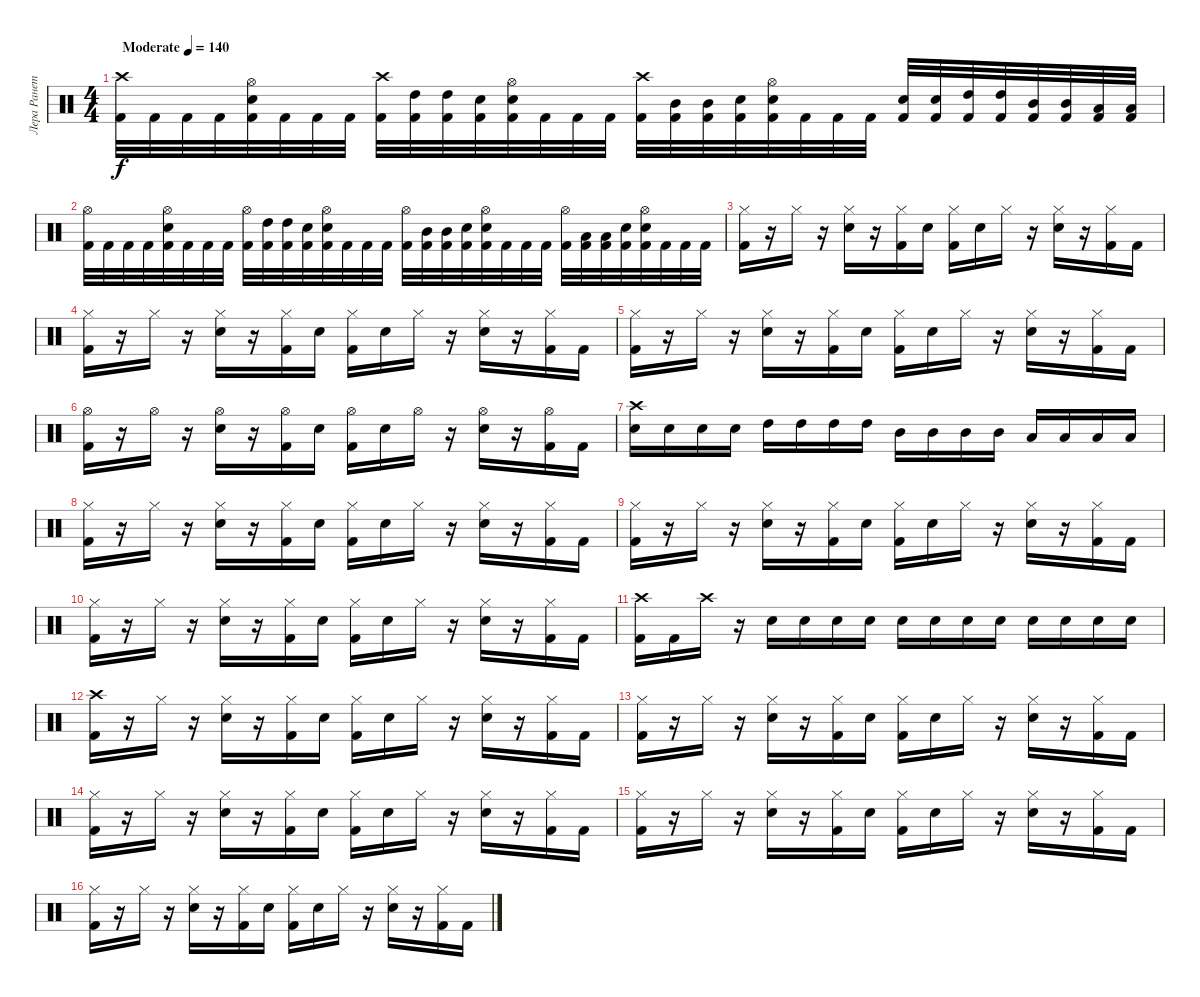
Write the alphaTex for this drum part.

\track ("Лера Ранетка" "Лера Ранет") {instrument percussion}
\staff {score}
\articulation defaults
\ts (4 4)
\tempo (140 "Moderate")
\clef neutral
\ks c
("Crash high (hit)" "Kick (hit) 2").32{dy f} "Kick (hit) 2".32 "Kick (hit) 2".32 "Kick (hit) 2".32 ("Hi-Hat (open)" "Snare (hit) 2" "Kick (hit) 2").32 "Kick (hit) 2".32 "Kick (hit) 2".32 "Kick (hit) 2".32 ("Crash high (hit)" "Kick (hit) 2").32 ("High Tom (hit)" "Kick (hit) 2").32 ("High Tom (hit)" "Kick (hit) 2").32 ("Snare (hit) 2" "Kick (hit) 2").32 ("Hi-Hat (open)" "Snare (hit) 2" "Kick (hit) 2").32 "Kick (hit) 2".32 "Kick (hit) 2".32 "Kick (hit) 2".32 ("Crash high (hit)" "Kick (hit) 2").32 ("Mid Tom (hit)" "Kick (hit) 2").32 ("Mid Tom (hit)" "Kick (hit) 2").32 ("Snare (hit) 2" "Kick (hit) 2").32 ("Hi-Hat (open)" "Snare (hit) 2" "Kick (hit) 2").32 "Kick (hit) 2".32 "Kick (hit) 2".32 "Kick (hit) 2".32 ("Snare (hit) 2" "Kick (hit) 2").32 ("Snare (hit) 2" "Kick (hit) 2").32 ("High Tom (hit)" "Kick (hit) 2").32 ("High Tom (hit)" "Kick (hit) 2").32 ("Mid Tom (hit)" "Kick (hit) 2").32 ("Mid Tom (hit)" "Kick (hit) 2").32 ("Low Tom (hit)" "Kick (hit) 2").32 ("Low Tom (hit)" "Kick (hit) 2").32 |
("Hi-Hat (open)" "Kick (hit) 2").32 "Kick (hit) 2".32 "Kick (hit) 2".32 "Kick (hit) 2".32 ("Hi-Hat (open)" "Snare (hit) 2" "Kick (hit) 2").32 "Kick (hit) 2".32 "Kick (hit) 2".32 "Kick (hit) 2".32 ("Hi-Hat (open)" "Kick (hit) 2").32 ("High Tom (hit)" "Kick (hit) 2").32 ("High Tom (hit)" "Kick (hit) 2").32 ("Snare (hit) 2" "Kick (hit) 2").32 ("Hi-Hat (open)" "Snare (hit) 2" "Kick (hit) 2").32 "Kick (hit) 2".32 "Kick (hit) 2".32 "Kick (hit) 2".32 ("Hi-Hat (open)" "Kick (hit) 2").32 ("Mid Tom (hit)" "Kick (hit) 2").32 ("Mid Tom (hit)" "Kick (hit) 2").32 ("Snare (hit) 2" "Kick (hit) 2").32 ("Hi-Hat (open)" "Snare (hit) 2" "Kick (hit) 2").32 "Kick (hit) 2".32 "Kick (hit) 2".32 "Kick (hit) 2".32 ("Hi-Hat (open)" "Kick (hit) 2").32 ("Low Tom (hit)" "Kick (hit) 2").32 ("Low Tom (hit)" "Kick (hit) 2").32 ("Snare (hit) 2" "Kick (hit) 2").32 ("Hi-Hat (open)" "Snare (hit) 2" "Kick (hit) 2").32 "Kick (hit) 2".32 "Kick (hit) 2".32 "Kick (hit) 2".32 |
("Hi-Hat (closed)" "Kick (hit) 2").16 r.16 "Hi-Hat (closed)".16 r.16 ("Hi-Hat (closed)" "Snare (hit) 2").16 r.16 ("Hi-Hat (closed)" "Kick (hit) 2").16 "Snare (hit) 2".16 ("Hi-Hat (closed)" "Kick (hit) 2").16 "Snare (hit) 2".16 "Hi-Hat (closed)".16 r.16 ("Hi-Hat (closed)" "Snare (hit) 2").16 r.16 ("Hi-Hat (closed)" "Kick (hit) 2").16 "Kick (hit) 2".16 |
("Hi-Hat (closed)" "Kick (hit) 2").16 r.16 "Hi-Hat (closed)".16 r.16 ("Hi-Hat (closed)" "Snare (hit) 2").16 r.16 ("Hi-Hat (closed)" "Kick (hit) 2").16 "Snare (hit) 2".16 ("Hi-Hat (closed)" "Kick (hit) 2").16 "Snare (hit) 2".16 "Hi-Hat (closed)".16 r.16 ("Hi-Hat (closed)" "Snare (hit) 2").16 r.16 ("Hi-Hat (closed)" "Kick (hit) 2").16 "Kick (hit) 2".16 |
("Hi-Hat (closed)" "Kick (hit) 2").16 r.16 "Hi-Hat (closed)".16 r.16 ("Hi-Hat (closed)" "Snare (hit) 2").16 r.16 ("Hi-Hat (closed)" "Kick (hit) 2").16 "Snare (hit) 2".16 ("Hi-Hat (closed)" "Kick (hit) 2").16 "Snare (hit) 2".16 "Hi-Hat (closed)".16 r.16 ("Hi-Hat (closed)" "Snare (hit) 2").16 r.16 ("Hi-Hat (closed)" "Kick (hit) 2").16 "Kick (hit) 2".16 |
("Hi-Hat (open)" "Kick (hit) 2").16 r.16 "Hi-Hat (open)".16 r.16 ("Hi-Hat (open)" "Snare (hit) 2").16 r.16 ("Hi-Hat (open)" "Kick (hit) 2").16 "Snare (hit) 2".16 ("Hi-Hat (open)" "Kick (hit) 2").16 "Snare (hit) 2".16 "Hi-Hat (open)".16 r.16 ("Hi-Hat (open)" "Snare (hit) 2").16 r.16 ("Hi-Hat (open)" "Kick (hit) 2").16 "Kick (hit) 2".16 |
("Crash high (hit)" "Snare (hit) 2").16 "Snare (hit) 2".16 "Snare (hit) 2".16 "Snare (hit) 2".16 "High Tom (hit)".16 "High Tom (hit)".16 "High Tom (hit)".16 "High Tom (hit)".16 "Mid Tom (hit)".16 "Mid Tom (hit)".16 "Mid Tom (hit)".16 "Mid Tom (hit)".16 "Low Tom (hit)".16 "Low Tom (hit)".16 "Low Tom (hit)".16 "Low Tom (hit)".16 |
("Hi-Hat (closed)" "Kick (hit) 2").16 r.16 "Hi-Hat (closed)".16 r.16 ("Hi-Hat (closed)" "Snare (hit) 2").16 r.16 ("Hi-Hat (closed)" "Kick (hit) 2").16 "Snare (hit) 2".16 ("Hi-Hat (closed)" "Kick (hit) 2").16 "Snare (hit) 2".16 "Hi-Hat (closed)".16 r.16 ("Hi-Hat (closed)" "Snare (hit) 2").16 r.16 ("Hi-Hat (closed)" "Kick (hit) 2").16 "Kick (hit) 2".16 |
("Hi-Hat (closed)" "Kick (hit) 2").16 r.16 "Hi-Hat (closed)".16 r.16 ("Hi-Hat (closed)" "Snare (hit) 2").16 r.16 ("Hi-Hat (closed)" "Kick (hit) 2").16 "Snare (hit) 2".16 ("Hi-Hat (closed)" "Kick (hit) 2").16 "Snare (hit) 2".16 "Hi-Hat (closed)".16 r.16 ("Hi-Hat (closed)" "Snare (hit) 2").16 r.16 ("Hi-Hat (closed)" "Kick (hit) 2").16 "Kick (hit) 2".16 |
("Hi-Hat (closed)" "Kick (hit) 2").16 r.16 "Hi-Hat (closed)".16 r.16 ("Hi-Hat (closed)" "Snare (hit) 2").16 r.16 ("Hi-Hat (closed)" "Kick (hit) 2").16 "Snare (hit) 2".16 ("Hi-Hat (closed)" "Kick (hit) 2").16 "Snare (hit) 2".16 "Hi-Hat (closed)".16 r.16 ("Hi-Hat (closed)" "Snare (hit) 2").16 r.16 ("Hi-Hat (closed)" "Kick (hit) 2").16 "Kick (hit) 2".16 |
("Crash high (hit)" "Kick (hit) 2").16 "Kick (hit) 2".16 "Crash high (hit)".16 r.16 "Snare (hit) 2".16 "Snare (hit) 2".16 "Snare (hit) 2".16 "Snare (hit) 2".16 "Snare (hit) 2".16 "Snare (hit) 2".16 "Snare (hit) 2".16 "Snare (hit) 2".16 "Snare (hit) 2".16 "Snare (hit) 2".16 "Snare (hit) 2".16 "Snare (hit) 2".16 |
("Crash high (hit)" "Kick (hit) 2").16 r.16 "Hi-Hat (closed)".16 r.16 ("Hi-Hat (closed)" "Snare (hit) 2").16 r.16 ("Hi-Hat (closed)" "Kick (hit) 2").16 "Snare (hit) 2".16 ("Hi-Hat (closed)" "Kick (hit) 2").16 "Snare (hit) 2".16 "Hi-Hat (closed)".16 r.16 ("Hi-Hat (closed)" "Snare (hit) 2").16 r.16 ("Hi-Hat (closed)" "Kick (hit) 2").16 "Kick (hit) 2".16 |
("Hi-Hat (closed)" "Kick (hit) 2").16 r.16 "Hi-Hat (closed)".16 r.16 ("Hi-Hat (closed)" "Snare (hit) 2").16 r.16 ("Hi-Hat (closed)" "Kick (hit) 2").16 "Snare (hit) 2".16 ("Hi-Hat (closed)" "Kick (hit) 2").16 "Snare (hit) 2".16 "Hi-Hat (closed)".16 r.16 ("Hi-Hat (closed)" "Snare (hit) 2").16 r.16 ("Hi-Hat (closed)" "Kick (hit) 2").16 "Kick (hit) 2".16 |
("Hi-Hat (closed)" "Kick (hit) 2").16 r.16 "Hi-Hat (closed)".16 r.16 ("Hi-Hat (closed)" "Snare (hit) 2").16 r.16 ("Hi-Hat (closed)" "Kick (hit) 2").16 "Snare (hit) 2".16 ("Hi-Hat (closed)" "Kick (hit) 2").16 "Snare (hit) 2".16 "Hi-Hat (closed)".16 r.16 ("Hi-Hat (closed)" "Snare (hit) 2").16 r.16 ("Hi-Hat (closed)" "Kick (hit) 2").16 "Kick (hit) 2".16 |
("Hi-Hat (closed)" "Kick (hit) 2").16 r.16 "Hi-Hat (closed)".16 r.16 ("Hi-Hat (closed)" "Snare (hit) 2").16 r.16 ("Hi-Hat (closed)" "Kick (hit) 2").16 "Snare (hit) 2".16 ("Hi-Hat (closed)" "Kick (hit) 2").16 "Snare (hit) 2".16 "Hi-Hat (closed)".16 r.16 ("Hi-Hat (closed)" "Snare (hit) 2").16 r.16 ("Hi-Hat (closed)" "Kick (hit) 2").16 "Kick (hit) 2".16 |
("Hi-Hat (closed)" "Kick (hit) 2").16 r.16 "Hi-Hat (closed)".16 r.16 ("Hi-Hat (closed)" "Snare (hit) 2").16 r.16 ("Hi-Hat (closed)" "Kick (hit) 2").16 "Snare (hit) 2".16 ("Hi-Hat (closed)" "Kick (hit) 2").16 "Snare (hit) 2".16 "Hi-Hat (closed)".16 r.16 ("Hi-Hat (closed)" "Snare (hit) 2").16 r.16 ("Hi-Hat (closed)" "Kick (hit) 2").16 "Kick (hit) 2".16
